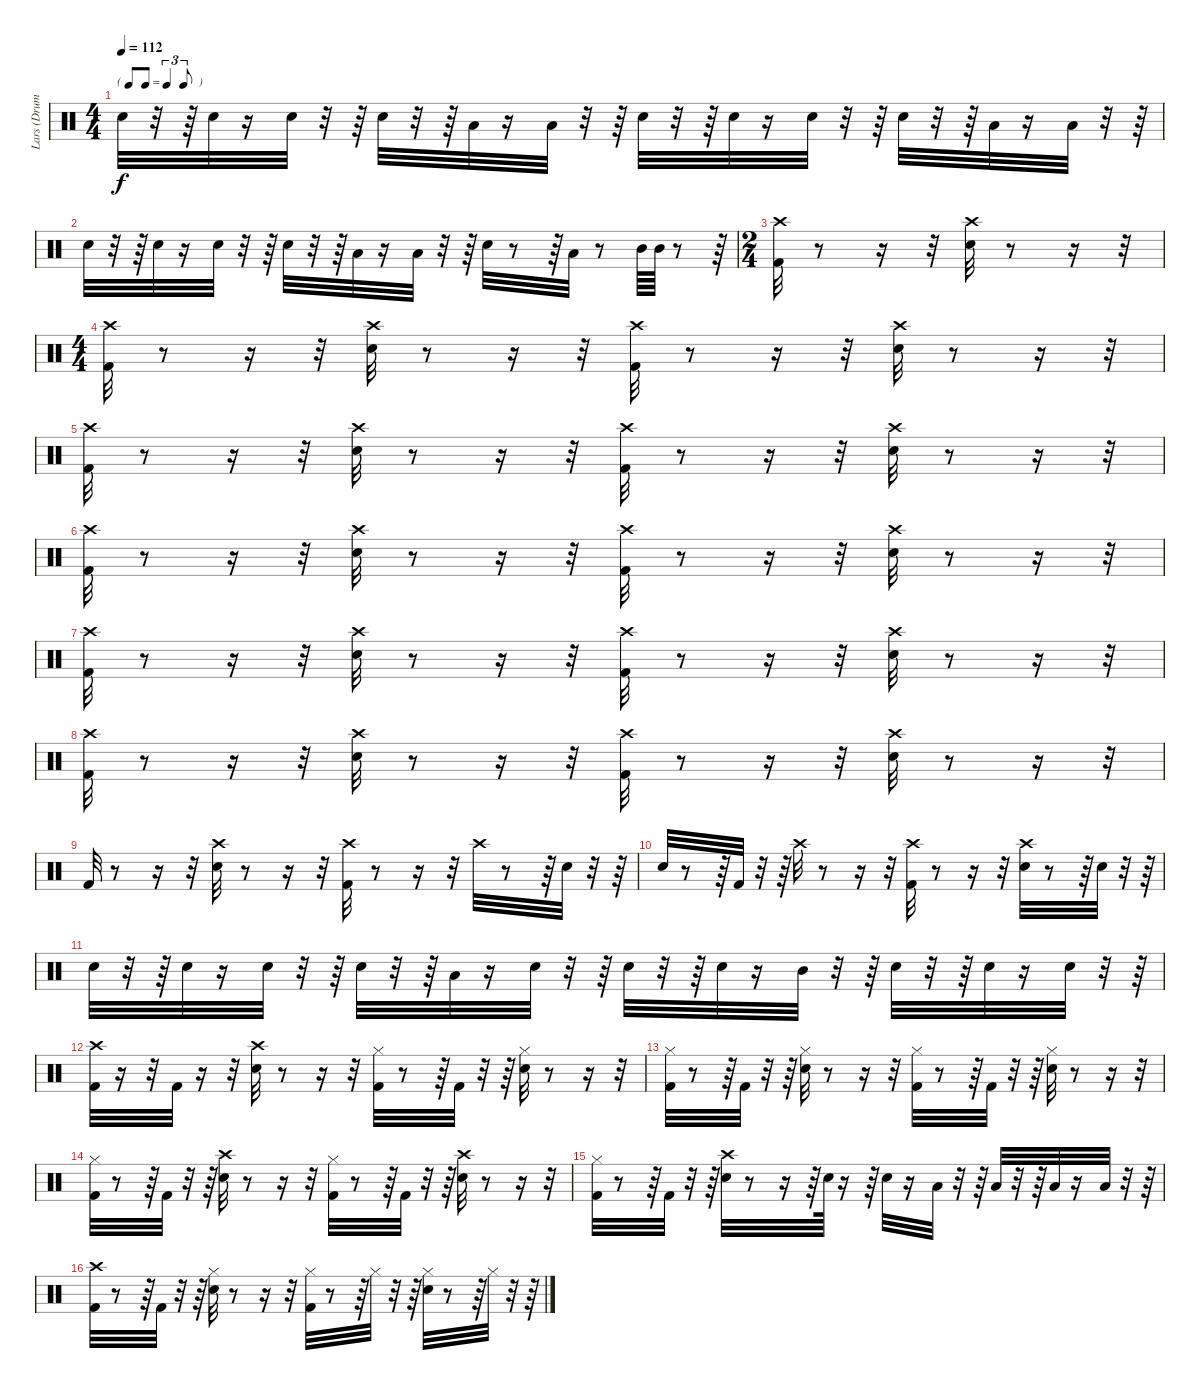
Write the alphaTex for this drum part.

\track ("Lars (Drums)" "Lars (Drum") {instrument percussion}
\staff {score}
\articulation defaults
\ts (4 4)
\tf triplet8th
\tempo 112
\clef neutral
\ks c "Snare (hit) 2".32{dy f}
r.32 r.64 "Snare (hit) 2".32 r.16 "Snare (hit) 2".32 r.32 r.64 "Snare (hit) 2".32 r.32 r.64 "Low Tom (hit)".32 r.16 "Low Tom (hit)".32 r.32 r.64 "Snare (hit) 2".32 r.32 r.64 "Snare (hit) 2".32 r.16 "Snare (hit) 2".32 r.32 r.64 "Snare (hit) 2".32 r.32 r.64 "Low Tom (hit)".32 r.16 "Low Tom (hit)".32 r.32 r.64 |
"Snare (hit) 2".32 r.32 r.64 "Snare (hit) 2".32 r.16 "Snare (hit) 2".32 r.32 r.64 "Snare (hit) 2".32 r.32 r.64 "Low Tom (hit)".32 r.16 "Low Tom (hit)".32 r.32 r.64 "Snare (hit) 2".32 r.8 r.64 "Low Tom (hit)".32 r.8 "Mid Tom (hit)".64 "Mid Tom (hit)".64 r.8 r.64 |
\ts (2 4)
("Crash high (hit)" "Kick (hit) 2").32 r.8 r.16 r.32 ("Crash high (hit)" "Snare (hit) 2").32 r.8 r.16 r.32 |
\ts (4 4)
("Crash high (hit)" "Kick (hit) 2").32 r.8 r.16 r.32 ("Snare (hit) 2" "Crash high (hit)").32 r.8 r.16 r.32 ("Kick (hit) 2" "Crash high (hit)").32 r.8 r.16 r.32 ("Snare (hit) 2" "Crash high (hit)").32 r.8 r.16 r.32 |
("Crash high (hit)" "Kick (hit) 2").32 r.8 r.16 r.32 ("Snare (hit) 2" "Crash high (hit)").32 r.8 r.16 r.32 ("Kick (hit) 2" "Crash high (hit)").32 r.8 r.16 r.32 ("Snare (hit) 2" "Crash high (hit)").32 r.8 r.16 r.32 |
("Crash high (hit)" "Kick (hit) 2").32 r.8 r.16 r.32 ("Snare (hit) 2" "Crash high (hit)").32 r.8 r.16 r.32 ("Kick (hit) 2" "Crash high (hit)").32 r.8 r.16 r.32 ("Snare (hit) 2" "Crash high (hit)").32 r.8 r.16 r.32 |
("Crash high (hit)" "Kick (hit) 2").32 r.8 r.16 r.32 ("Snare (hit) 2" "Crash high (hit)").32 r.8 r.16 r.32 ("Kick (hit) 2" "Crash high (hit)").32 r.8 r.16 r.32 ("Snare (hit) 2" "Crash high (hit)").32 r.8 r.16 r.32 |
("Crash high (hit)" "Kick (hit) 2").32 r.8 r.16 r.32 ("Snare (hit) 2" "Crash high (hit)").32 r.8 r.16 r.32 ("Kick (hit) 2" "Crash high (hit)").32 r.8 r.16 r.32 ("Snare (hit) 2" "Crash high (hit)").32 r.8 r.16 r.32 |
"Kick (hit) 2".32 r.8 r.16 r.32 ("Snare (hit) 2" "Crash high (hit)").32 r.8 r.16 r.32 ("Kick (hit) 2" "Crash high (hit)").32 r.8 r.16 r.32 "Crash high (hit)".32 r.8 r.64 "Snare (hit) 2".32 r.32 r.64 |
"Snare (hit) 2".32 r.8 r.64 "Kick (hit) 2".32 r.32 r.64 "Crash high (hit)".32 r.8 r.16 r.32 ("Crash high (hit)" "Kick (hit) 2").32 r.8 r.16 r.32 ("Crash high (hit)" "Snare (hit) 2").32 r.8 r.64 "Snare (hit) 2".32 r.32 r.64 |
"Snare (hit) 2".32 r.32 r.64 "Snare (hit) 2".32 r.16 "Snare (hit) 2".32 r.32 r.64 "Snare (hit) 2".32 r.32 r.64 "Low Tom (hit)".32 r.16 "Snare (hit) 2".32 r.32 r.64 "Snare (hit) 2".32 r.32 r.64 "Snare (hit) 2".32 r.16 "Mid Tom (hit)".32 r.32 r.64 "Snare (hit) 2".32 r.32 r.64 "Snare (hit) 2".32 r.16 "Snare (hit) 2".32 r.32 r.64 |
("Crash high (hit)" "Kick (hit) 2").32 r.16 r.32 "Kick (hit) 2".32 r.16 r.32 ("Crash high (hit)" "Snare (hit) 2").32 r.8 r.16 r.32 ("Hi-Hat (closed)" "Kick (hit) 2").32 r.8 r.64 "Kick (hit) 2".32 r.32 r.64 ("Snare (hit) 2" "Hi-Hat (closed)").32 r.8 r.16 r.32 |
("Kick (hit) 2" "Hi-Hat (closed)").32 r.8 r.64 "Kick (hit) 2".32 r.32 r.64 ("Snare (hit) 2" "Hi-Hat (closed)").32 r.8 r.16 r.32 ("Kick (hit) 2" "Hi-Hat (closed)").32 r.8 r.64 "Kick (hit) 2".32 r.32 r.64 ("Snare (hit) 2" "Hi-Hat (closed)").32 r.8 r.16 r.32 |
("Hi-Hat (closed)" "Kick (hit) 2").32 r.8 r.64 "Kick (hit) 2".32 r.32 r.64 ("Crash high (hit)" "Snare (hit) 2").32 r.8 r.16 r.32 ("Hi-Hat (closed)" "Kick (hit) 2").32 r.8 r.64 "Kick (hit) 2".32 r.32 r.64 ("Snare (hit) 2" "Crash high (hit)").32 r.8 r.16 r.32 |
("Hi-Hat (closed)" "Kick (hit) 2").32 r.8 r.64 "Kick (hit) 2".32 r.32 r.64 ("Crash high (hit)" "Snare (hit) 2").32 r.8 r.16 r.64 "Snare (hit) 2".64 r.16 r.64 "Snare (hit) 2".32 r.16 "Low Tom (hit)".32 r.32 r.64 "Low Floor Tom (hit)".32 r.32 r.64 "Low Floor Tom (hit)".32 r.16 "Low Floor Tom (hit)".32 r.32 r.64 |
("Crash high (hit)" "Kick (hit) 2").32 r.8 r.64 "Kick (hit) 2".32 r.32 r.64 ("Hi-Hat (closed)" "Snare (hit) 2").32 r.8 r.16 r.32 ("Hi-Hat (closed)" "Kick (hit) 2").32 r.8 r.64 "Hi-Hat (closed)".32 r.32 r.64 ("Snare (hit) 2" "Hi-Hat (closed)").32 r.8 r.64 "Hi-Hat (closed)".32 r.32 r.64
